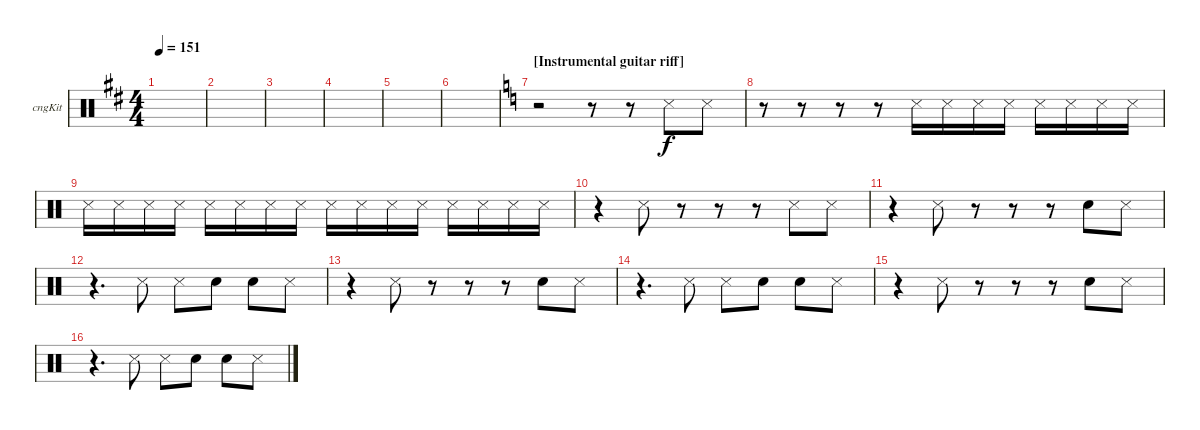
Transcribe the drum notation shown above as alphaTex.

\bracketExtendMode groupsimilarinstruments
\firstSystemTrackNameOrientation horizontal
\otherSystemsTrackNameOrientation horizontal
\track ("Congas" "cngKit") {instrument percussion}
\staff {score}
\articulation defaults
\ts (4 4)
\tempo 151
\clef neutral
\ks d
|
|
|
|
|
|
\section ("" "[Instrumental guitar riff]")
\ks aminor
r.2 r.8 r.8 "Snare (side stick) 3".8 "Snare (side stick) 3".8 |
r.8 r.8 r.8 r.8 "Snare (side stick) 3".16 "Snare (side stick) 3".16 "Snare (side stick) 3".16 "Snare (side stick) 3".16 "Snare (side stick) 3".16 "Snare (side stick) 3".16 "Snare (side stick) 3".16 "Snare (side stick) 3".16 |
"Snare (side stick) 3".16 "Snare (side stick) 3".16 "Snare (side stick) 3".16 "Snare (side stick) 3".16 "Snare (side stick) 3".16 "Snare (side stick) 3".16 "Snare (side stick) 3".16 "Snare (side stick) 3".16 "Snare (side stick) 3".16 "Snare (side stick) 3".16 "Snare (side stick) 3".16 "Snare (side stick) 3".16 "Snare (side stick) 3".16 "Snare (side stick) 3".16 "Snare (side stick) 3".16 "Snare (side stick) 3".16 |
r.4 "Snare (side stick) 3".8 r.8 r.8 r.8 "Snare (side stick) 3".8 "Snare (side stick) 3".8 |
r.4 "Snare (side stick) 3".8 r.8 r.8 r.8 "Snare (hit) 2".8 "Snare (side stick) 3".8 |
r.4{d} "Snare (side stick) 3".8 "Snare (side stick) 3".8 "Snare (hit) 2".8 "Snare (hit) 2".8 "Snare (side stick) 3".8 |
r.4 "Snare (side stick) 3".8 r.8 r.8 r.8 "Snare (hit) 2".8 "Snare (side stick) 3".8 |
r.4{d} "Snare (side stick) 3".8 "Snare (side stick) 3".8 "Snare (hit) 2".8 "Snare (hit) 2".8 "Snare (side stick) 3".8 |
r.4 "Snare (side stick) 3".8 r.8 r.8 r.8 "Snare (hit) 2".8 "Snare (side stick) 3".8 |
r.4{d} "Snare (side stick) 3".8 "Snare (side stick) 3".8 "Snare (hit) 2".8 "Snare (hit) 2".8 "Snare (side stick) 3".8
